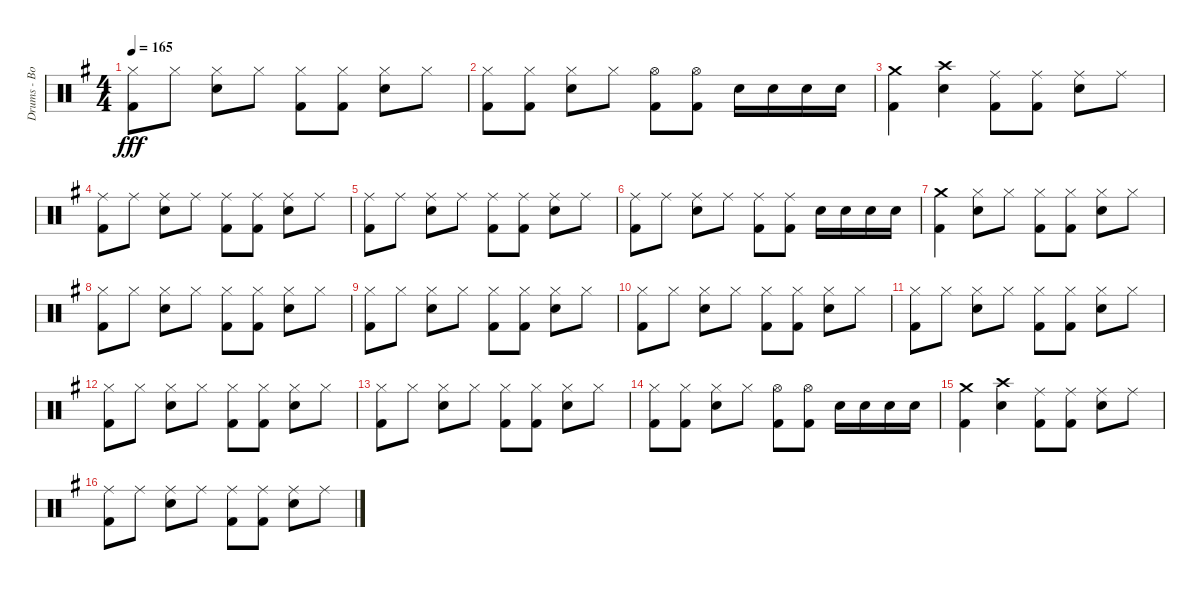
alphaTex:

\track ("Drums - Bobby Schayer" "Drums - Bo") {instrument percussion}
\staff {score}
\articulation defaults
\ts (4 4)
\tempo 165
\clef neutral
\ks g
("Hi-Hat (closed)" "Kick (hit) 2").8{dy fff} "Hi-Hat (closed)".8 ("Hi-Hat (closed)" "Electric Snare (hit)").8 "Hi-Hat (closed)".8 ("Hi-Hat (closed)" "Kick (hit) 2").8 ("Hi-Hat (closed)" "Kick (hit) 2").8 ("Hi-Hat (closed)" "Electric Snare (hit)").8 "Hi-Hat (closed)".8 |
("Hi-Hat (closed)" "Kick (hit) 2").8 ("Hi-Hat (closed)" "Kick (hit) 2").8 ("Hi-Hat (closed)" "Electric Snare (hit)").8 "Hi-Hat (closed)".8 ("Hi-Hat (open)" "Kick (hit) 2").8 ("Hi-Hat (open)" "Kick (hit) 2").8 "Electric Snare (hit)".16 "Electric Snare (hit)".16 "Electric Snare (hit)".16 "Electric Snare (hit)".16 |
("Crash medium (hit)" "Kick (hit) 2").4 ("Crash high (hit)" "Electric Snare (hit)").4 ("Ride (middle)" "Kick (hit) 2").8 ("Ride (middle)" "Kick (hit) 2").8 ("Ride (middle)" "Electric Snare (hit)").8 "Ride (middle)".8 |
("Ride (middle)" "Kick (hit) 2").8 "Ride (middle)".8 ("Ride (middle)" "Electric Snare (hit)").8 "Ride (middle)".8 ("Ride (middle)" "Kick (hit) 2").8 ("Ride (middle)" "Kick (hit) 2").8 ("Ride (middle)" "Electric Snare (hit)").8 "Ride (middle)".8 |
("Ride (middle)" "Kick (hit) 2").8 "Ride (middle)".8 ("Ride (middle)" "Electric Snare (hit)").8 "Ride (middle)".8 ("Ride (middle)" "Kick (hit) 2").8 ("Ride (middle)" "Kick (hit) 2").8 ("Ride (middle)" "Electric Snare (hit)").8 "Ride (middle)".8 |
("Ride (middle)" "Kick (hit) 2").8 "Ride (middle)".8 ("Ride (middle)" "Electric Snare (hit)").8 "Ride (middle)".8 ("Ride (middle)" "Kick (hit) 2").8 ("Ride (middle)" "Kick (hit) 2").8 "Electric Snare (hit)".16 "Electric Snare (hit)".16 "Electric Snare (hit)".16 "Electric Snare (hit)".16 |
("Crash medium (hit)" "Kick (hit) 2").4 ("Hi-Hat (closed)" "Electric Snare (hit)").8 "Hi-Hat (closed)".8 ("Hi-Hat (closed)" "Kick (hit) 2").8 ("Hi-Hat (closed)" "Kick (hit) 2").8 ("Hi-Hat (closed)" "Electric Snare (hit)").8 "Hi-Hat (closed)".8 |
("Hi-Hat (closed)" "Kick (hit) 2").8 "Hi-Hat (closed)".8 ("Hi-Hat (closed)" "Electric Snare (hit)").8 "Hi-Hat (closed)".8 ("Hi-Hat (closed)" "Kick (hit) 2").8 ("Hi-Hat (closed)" "Kick (hit) 2").8 ("Hi-Hat (closed)" "Electric Snare (hit)").8 "Hi-Hat (closed)".8 |
("Hi-Hat (closed)" "Kick (hit) 2").8 "Hi-Hat (closed)".8 ("Hi-Hat (closed)" "Electric Snare (hit)").8 "Hi-Hat (closed)".8 ("Hi-Hat (closed)" "Kick (hit) 2").8 ("Hi-Hat (closed)" "Kick (hit) 2").8 ("Hi-Hat (closed)" "Electric Snare (hit)").8 "Hi-Hat (closed)".8 |
("Hi-Hat (closed)" "Kick (hit) 2").8 "Hi-Hat (closed)".8 ("Hi-Hat (closed)" "Electric Snare (hit)").8 "Hi-Hat (closed)".8 ("Hi-Hat (closed)" "Kick (hit) 2").8 ("Hi-Hat (closed)" "Kick (hit) 2").8 ("Hi-Hat (closed)" "Electric Snare (hit)").8 "Hi-Hat (closed)".8 |
("Hi-Hat (closed)" "Kick (hit) 2").8 "Hi-Hat (closed)".8 ("Hi-Hat (closed)" "Electric Snare (hit)").8 "Hi-Hat (closed)".8 ("Hi-Hat (closed)" "Kick (hit) 2").8 ("Hi-Hat (closed)" "Kick (hit) 2").8 ("Hi-Hat (closed)" "Electric Snare (hit)").8 "Hi-Hat (closed)".8 |
("Hi-Hat (closed)" "Kick (hit) 2").8 "Hi-Hat (closed)".8 ("Hi-Hat (closed)" "Electric Snare (hit)").8 "Hi-Hat (closed)".8 ("Hi-Hat (closed)" "Kick (hit) 2").8 ("Hi-Hat (closed)" "Kick (hit) 2").8 ("Hi-Hat (closed)" "Electric Snare (hit)").8 "Hi-Hat (closed)".8 |
("Hi-Hat (closed)" "Kick (hit) 2").8 "Hi-Hat (closed)".8 ("Hi-Hat (closed)" "Electric Snare (hit)").8 "Hi-Hat (closed)".8 ("Hi-Hat (closed)" "Kick (hit) 2").8 ("Hi-Hat (closed)" "Kick (hit) 2").8 ("Hi-Hat (closed)" "Electric Snare (hit)").8 "Hi-Hat (closed)".8 |
("Hi-Hat (closed)" "Kick (hit) 2").8 ("Hi-Hat (closed)" "Kick (hit) 2").8 ("Hi-Hat (closed)" "Electric Snare (hit)").8 "Hi-Hat (closed)".8 ("Hi-Hat (open)" "Kick (hit) 2").8 ("Hi-Hat (open)" "Kick (hit) 2").8 "Electric Snare (hit)".16 "Electric Snare (hit)".16 "Electric Snare (hit)".16 "Electric Snare (hit)".16 |
("Crash medium (hit)" "Kick (hit) 2").4 ("Crash high (hit)" "Electric Snare (hit)").4 ("Ride (middle)" "Kick (hit) 2").8 ("Ride (middle)" "Kick (hit) 2").8 ("Ride (middle)" "Electric Snare (hit)").8 "Ride (middle)".8 |
("Ride (middle)" "Kick (hit) 2").8 "Ride (middle)".8 ("Ride (middle)" "Electric Snare (hit)").8 "Ride (middle)".8 ("Ride (middle)" "Kick (hit) 2").8 ("Ride (middle)" "Kick (hit) 2").8 ("Ride (middle)" "Electric Snare (hit)").8 "Ride (middle)".8
